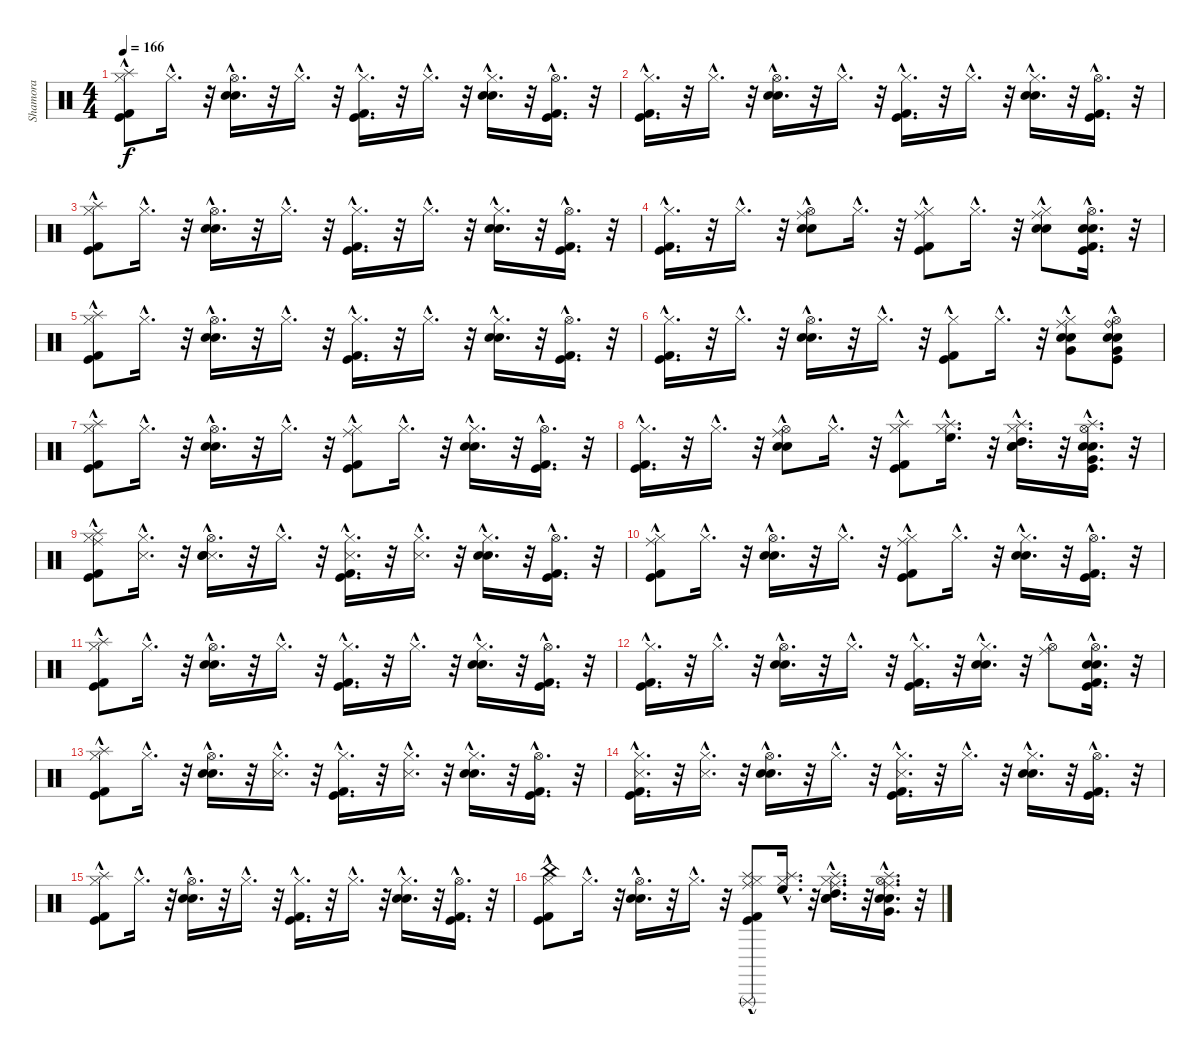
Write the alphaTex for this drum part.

\track ("Shamora" "Shamora") {instrument percussion}
\staff {score}
\articulation defaults
\ts (4 4)
\tempo 166
\clef neutral
\ks c
("Hi-Hat (closed)"{hac} "Kick (hit) 2"{hac} "Kick (hit)"{hac} "Splash (hit)").8{dy f} "Hi-Hat (closed)"{hac}.16{d} r.32 ("Hi-Hat (open)"{hac} "Snare (hit) 2"{hac} "Electric Snare (hit)"{hac}).16{d} r.32 "Hi-Hat (closed)"{hac}.16{d} r.32 ("Hi-Hat (closed)"{hac} "Kick (hit)"{hac} "Kick (hit) 2"{hac}).16{d} r.32 "Hi-Hat (closed)"{hac}.16{d} r.32 ("Hi-Hat (closed)"{hac} "Snare (hit) 2"{hac} "Electric Snare (hit)"{hac}).16{d} r.32 ("Hi-Hat (open)"{hac} "Kick (hit)"{hac} "Kick (hit) 2"{hac}).16{d} r.32 |
("Hi-Hat (closed)"{hac} "Kick (hit) 2"{hac} "Kick (hit)"{hac}).16{d} r.32 "Hi-Hat (closed)"{hac}.16{d} r.32 ("Hi-Hat (open)"{hac} "Snare (hit) 2"{hac} "Electric Snare (hit)"{hac}).16{d} r.32 "Hi-Hat (closed)"{hac}.16{d} r.32 ("Hi-Hat (closed)"{hac} "Kick (hit)"{hac} "Kick (hit) 2"{hac}).16{d} r.32 "Hi-Hat (closed)"{hac}.16{d} r.32 ("Hi-Hat (closed)"{hac} "Snare (hit) 2"{hac} "Electric Snare (hit)"{hac}).16{d} r.32 ("Hi-Hat (open)"{hac} "Kick (hit)"{hac} "Kick (hit) 2"{hac}).16{d} r.32 |
("Splash (hit)" "Hi-Hat (closed)"{hac} "Kick (hit) 2"{hac} "Kick (hit)"{hac}).8 "Hi-Hat (closed)"{hac}.16{d} r.32 ("Hi-Hat (open)"{hac} "Snare (hit) 2"{hac} "Electric Snare (hit)"{hac}).16{d} r.32 "Hi-Hat (closed)"{hac}.16{d} r.32 ("Hi-Hat (closed)"{hac} "Kick (hit)"{hac} "Kick (hit) 2"{hac}).16{d} r.32 "Hi-Hat (closed)"{hac}.16{d} r.32 ("Hi-Hat (closed)"{hac} "Snare (hit) 2"{hac} "Electric Snare (hit)"{hac}).16{d} r.32 ("Hi-Hat (open)"{hac} "Kick (hit)"{hac} "Kick (hit) 2"{hac}).16{d} r.32 |
("Hi-Hat (closed)"{hac} "Kick (hit) 2"{hac} "Kick (hit)"{hac}).16{d} r.32 "Hi-Hat (closed)"{hac}.16{d} r.32 ("Ride (middle)" "Hi-Hat (open)"{hac} "Snare (hit) 2"{hac} "Electric Snare (hit)"{hac}).8 "Hi-Hat (closed)"{hac}.16{d} r.32 ("Ride (middle)" "Hi-Hat (closed)"{hac} "Kick (hit)"{hac} "Kick (hit) 2"{hac}).8 "Hi-Hat (closed)"{hac}.16{d} r.32 ("Ride (middle)" "Hi-Hat (closed)"{hac} "Snare (hit) 2"{hac} "Electric Snare (hit)"{hac}).8 ("Snare (hit) 2"{hac} "Electric Snare (hit)"{hac} "Hi-Hat (open)"{hac} "Kick (hit)"{hac} "Kick (hit) 2"{hac}).16{d} r.32 |
("Hi-Hat (closed)"{hac} "Kick (hit) 2"{hac} "Kick (hit)"{hac} "Splash (hit)").8 "Hi-Hat (closed)"{hac}.16{d} r.32 ("Hi-Hat (open)"{hac} "Snare (hit) 2"{hac} "Electric Snare (hit)"{hac}).16{d} r.32 "Hi-Hat (closed)"{hac}.16{d} r.32 ("Hi-Hat (closed)"{hac} "Kick (hit)"{hac} "Kick (hit) 2"{hac}).16{d} r.32 "Hi-Hat (closed)"{hac}.16{d} r.32 ("Hi-Hat (closed)"{hac} "Snare (hit) 2"{hac} "Electric Snare (hit)"{hac}).16{d} r.32 ("Hi-Hat (open)"{hac} "Kick (hit)"{hac} "Kick (hit) 2"{hac}).16{d} r.32 |
("Hi-Hat (closed)"{hac} "Kick (hit) 2"{hac} "Kick (hit)"{hac}).16{d} r.32 "Hi-Hat (closed)"{hac}.16{d} r.32 ("Hi-Hat (open)"{hac} "Snare (hit) 2"{hac} "Electric Snare (hit)"{hac}).16{d} r.32 "Hi-Hat (closed)"{hac}.16{d} r.32 ("Hi-Hat (closed)"{hac} "Kick (hit)"{hac} "Kick (hit) 2"{hac}).8 "Hi-Hat (closed)"{hac}.16{d} r.32 ("Ride (middle)" "Very Low Tom (hit)"{hac} "Hi-Hat (closed)"{hac} "Snare (hit) 2"{hac} "Electric Snare (hit)"{hac}).8 ("Ride (bell)" "Very Low Tom (hit)"{hac} "Snare (hit) 2"{hac} "Electric Snare (hit)"{hac} "Hi-Hat (open)"{hac} "Kick (hit)"{hac}).8 |
("Splash (hit)" "Hi-Hat (closed)"{hac} "Kick (hit) 2"{hac} "Kick (hit)"{hac}).8 "Hi-Hat (closed)"{hac}.16{d} r.32 ("Hi-Hat (open)"{hac} "Snare (hit) 2"{hac} "Electric Snare (hit)"{hac}).16{d} r.32 "Hi-Hat (closed)"{hac}.16{d} r.32 ("Ride (middle)" "Hi-Hat (closed)"{hac} "Kick (hit)"{hac} "Kick (hit) 2"{hac}).8 "Hi-Hat (closed)"{hac}.16{d} r.32 ("Hi-Hat (closed)"{hac} "Snare (hit) 2"{hac} "Electric Snare (hit)"{hac}).16{d} r.32 ("Hi-Hat (open)"{hac} "Kick (hit)"{hac} "Kick (hit) 2"{hac}).16{d} r.32 |
("Hi-Hat (closed)"{hac} "Kick (hit) 2"{hac} "Kick (hit)"{hac}).16{d} r.32 "Hi-Hat (closed)"{hac}.16{d} r.32 ("Ride (middle)" "Hi-Hat (open)"{hac} "Snare (hit) 2"{hac} "Electric Snare (hit)"{hac}).8 "Hi-Hat (closed)"{hac}.16{d} r.32 ("Splash (hit)"{hac} "Hi-Hat (closed)"{hac} "Kick (hit)"{hac} "Kick (hit) 2"{hac}).8 ("High Floor Tom (hit)"{hac} "Splash (hit)"{hac} "Hi-Hat (closed)"{hac}).16{d} r.32 ("High Tom (hit)"{hac} "Splash (hit)"{hac} "Hi-Hat (closed)"{hac} "Snare (hit) 2"{hac} "Electric Snare (hit)"{hac}).16{d} r.32 ("Very Low Tom (hit)"{hac} "Splash (hit)"{hac} "Snare (hit) 2"{hac} "Electric Snare (hit)"{hac} "Hi-Hat (open)"{hac} "Kick (hit)"{hac}).16{d} r.32 |
("Ride (middle)" "Hi-Hat (closed)"{hac} "Kick (hit) 2"{hac} "Kick (hit)"{hac} "Splash (hit)").8 ("Snare (side stick) 3"{hac} "Hi-Hat (closed)"{hac}).16{d} r.32 ("Snare (side stick) 3"{hac} "Hi-Hat (open)"{hac} "Snare (hit) 2"{hac} "Electric Snare (hit)"{hac}).16{d} r.32 "Hi-Hat (closed)"{hac}.16{d} r.32 ("Snare (side stick) 3"{hac} "Hi-Hat (closed)"{hac} "Kick (hit)"{hac} "Kick (hit) 2"{hac}).16{d} r.32 ("Snare (side stick) 3"{hac} "Hi-Hat (closed)"{hac}).16{d} r.32 ("Hi-Hat (closed)"{hac} "Snare (hit) 2"{hac} "Electric Snare (hit)"{hac}).16{d} r.32 ("Hi-Hat (open)"{hac} "Kick (hit)"{hac} "Kick (hit) 2"{hac}).16{d} r.32 |
("Ride (middle)" "Hi-Hat (closed)"{hac} "Kick (hit) 2"{hac} "Kick (hit)"{hac}).8 "Hi-Hat (closed)"{hac}.16{d} r.32 ("Hi-Hat (open)"{hac} "Snare (hit) 2"{hac} "Electric Snare (hit)"{hac}).16{d} r.32 "Hi-Hat (closed)"{hac}.16{d} r.32 ("Ride (middle)" "Hi-Hat (closed)"{hac} "Kick (hit)"{hac} "Kick (hit) 2"{hac}).8 "Hi-Hat (closed)"{hac}.16{d} r.32 ("Hi-Hat (closed)"{hac} "Snare (hit) 2"{hac} "Electric Snare (hit)"{hac}).16{d} r.32 ("Hi-Hat (open)"{hac} "Kick (hit)"{hac} "Kick (hit) 2"{hac}).16{d} r.32 |
("Splash (hit)" "Hi-Hat (closed)"{hac} "Kick (hit) 2"{hac} "Kick (hit)"{hac}).8 "Hi-Hat (closed)"{hac}.16{d} r.32 ("Hi-Hat (open)"{hac} "Snare (hit) 2"{hac} "Electric Snare (hit)"{hac}).16{d} r.32 "Hi-Hat (closed)"{hac}.16{d} r.32 ("Hi-Hat (closed)"{hac} "Kick (hit)"{hac} "Kick (hit) 2"{hac}).16{d} r.32 "Hi-Hat (closed)"{hac}.16{d} r.32 ("Hi-Hat (closed)"{hac} "Snare (hit) 2"{hac} "Electric Snare (hit)"{hac}).16{d} r.32 ("Hi-Hat (open)"{hac} "Kick (hit)"{hac} "Kick (hit) 2"{hac}).16{d} r.32 |
("Hi-Hat (closed)"{hac} "Kick (hit) 2"{hac} "Kick (hit)"{hac}).16{d} r.32 "Hi-Hat (closed)"{hac}.16{d} r.32 ("Hi-Hat (open)"{hac} "Snare (hit) 2"{hac} "Electric Snare (hit)"{hac}).16{d} r.32 "Hi-Hat (closed)"{hac}.16{d} r.32 ("Hi-Hat (closed)"{hac} "Kick (hit)"{hac} "Kick (hit) 2"{hac}).16{d} r.32 ("Snare (hit) 2"{hac} "Electric Snare (hit)"{hac} "Hi-Hat (closed)"{hac}).16{d} r.32 ("Ride (middle)" "Hi-Hat (open)"{hac}).8 ("Hi-Hat (open)"{hac} "Snare (hit) 2"{hac} "Electric Snare (hit)"{hac} "Kick (hit)"{hac} "Kick (hit) 2"{hac}).16{d} r.32 |
("Hi-Hat (closed)"{hac} "Kick (hit) 2"{hac} "Kick (hit)"{hac} "Splash (hit)").8 "Hi-Hat (closed)"{hac}.16{d} r.32 ("Hi-Hat (open)"{hac} "Snare (hit) 2"{hac} "Electric Snare (hit)"{hac}).16{d} r.32 ("Snare (side stick) 3"{hac} "Hi-Hat (closed)"{hac}).16{d} r.32 ("Hi-Hat (closed)"{hac} "Kick (hit)"{hac} "Kick (hit) 2"{hac}).16{d} r.32 ("Snare (side stick) 3"{hac} "Hi-Hat (closed)"{hac}).16{d} r.32 ("Hi-Hat (closed)"{hac} "Snare (hit) 2"{hac} "Electric Snare (hit)"{hac}).16{d} r.32 ("Hi-Hat (open)"{hac} "Kick (hit)"{hac} "Kick (hit) 2"{hac}).16{d} r.32 |
("Snare (side stick) 3"{hac} "Hi-Hat (closed)"{hac} "Kick (hit) 2"{hac} "Kick (hit)"{hac}).16{d} r.32 ("Snare (side stick) 3"{hac} "Hi-Hat (closed)"{hac}).16{d} r.32 ("Hi-Hat (open)"{hac} "Snare (hit) 2"{hac} "Electric Snare (hit)"{hac}).16{d} r.32 "Hi-Hat (closed)"{hac}.16{d} r.32 ("Snare (side stick) 3"{hac} "Hi-Hat (closed)"{hac} "Kick (hit)"{hac} "Kick (hit) 2"{hac}).16{d} r.32 "Hi-Hat (closed)"{hac}.16{d} r.32 ("Hi-Hat (closed)"{hac} "Snare (hit) 2"{hac} "Electric Snare (hit)"{hac}).16{d} r.32 ("Hi-Hat (open)"{hac} "Kick (hit)"{hac} "Kick (hit) 2"{hac}).16{d} r.32 |
("Splash (hit)" "Hi-Hat (closed)"{hac} "Kick (hit) 2"{hac} "Kick (hit)"{hac}).8 "Hi-Hat (closed)"{hac}.16{d} r.32 ("Hi-Hat (open)"{hac} "Snare (hit) 2"{hac} "Electric Snare (hit)"{hac}).16{d} r.32 "Hi-Hat (closed)"{hac}.16{d} r.32 ("Hi-Hat (closed)"{hac} "Kick (hit)"{hac} "Kick (hit) 2"{hac}).16{d} r.32 "Hi-Hat (closed)"{hac}.16{d} r.32 ("Hi-Hat (closed)"{hac} "Snare (hit) 2"{hac} "Electric Snare (hit)"{hac}).16{d} r.32 ("Hi-Hat (open)"{hac} "Kick (hit)"{hac} "Kick (hit) 2"{hac}).16{d} r.32 |
("China (hit)" "Hi-Hat (closed)"{hac} "Kick (hit) 2"{hac} "Kick (hit)"{hac}).8 "Hi-Hat (closed)"{hac}.16{d} r.32 ("Hi-Hat (open)"{hac} "Snare (hit) 2"{hac} "Electric Snare (hit)"{hac}).16{d} r.32 "Hi-Hat (closed)"{hac}.16{d} r.32 ("Triangle (rnute)" "Ride (middle)"{hac} "Splash (hit)"{hac} "Hi-Hat (closed)"{hac} "Kick (hit)"{hac} "Kick (hit) 2"{hac}).8 ("High Floor Tom (hit)"{hac} "Splash (hit)"{hac} "Hi-Hat (closed)"{hac}).16{d} r.32 ("Ride (middle)"{hac} "High Tom (hit)"{hac} "Splash (hit)"{hac} "Hi-Hat (closed)"{hac} "Snare (hit) 2"{hac} "Electric Snare (hit)"{hac}).16{d} r.32 ("Ride (middle)"{hac} "Very Low Tom (hit)"{hac} "Splash (hit)"{hac} "Snare (hit) 2"{hac} "Electric Snare (hit)"{hac} "Hi-Hat (open)"{hac}).16{d} r.32
